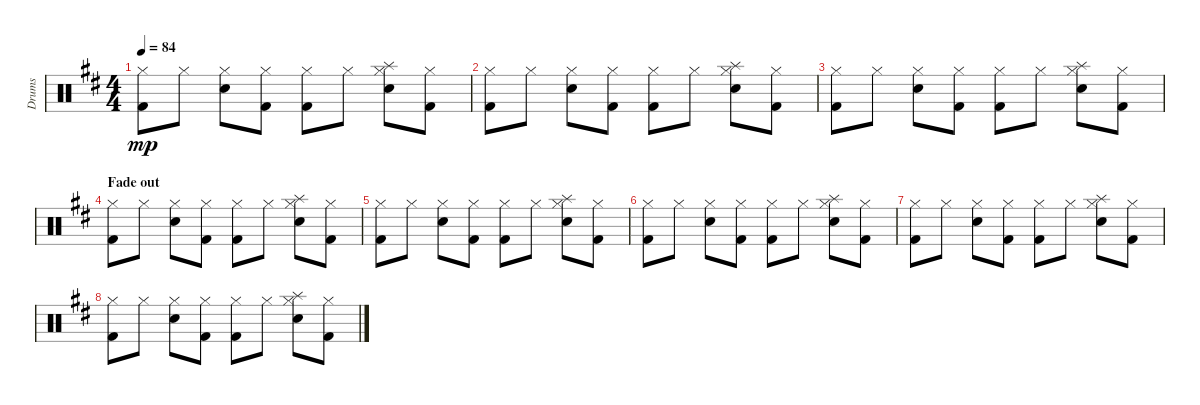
\track ("Drums" "Drums") {instrument percussion}
\staff {score}
\articulation defaults
\ts (4 4)
\tempo 84
\clef neutral
\ks d
("Hi-Hat (closed)" "Kick (hit) 2").8{dy mp} "Hi-Hat (closed)".8 ("Hi-Hat (closed)" "Snare (hit) 2").8 ("Hi-Hat (closed)" "Kick (hit) 2").8 ("Hi-Hat (closed)" "Kick (hit) 2").8 "Hi-Hat (closed)".8 ("Splash (hit)" "Hi-Hat (closed)" "Snare (hit) 2").8 ("Hi-Hat (closed)" "Kick (hit) 2").8 |
("Hi-Hat (closed)" "Kick (hit) 2").8 "Hi-Hat (closed)".8 ("Hi-Hat (closed)" "Snare (hit) 2").8 ("Hi-Hat (closed)" "Kick (hit) 2").8 ("Hi-Hat (closed)" "Kick (hit) 2").8 "Hi-Hat (closed)".8 ("Splash (hit)" "Hi-Hat (closed)" "Snare (hit) 2").8 ("Hi-Hat (closed)" "Kick (hit) 2").8 |
("Hi-Hat (closed)" "Kick (hit) 2").8 "Hi-Hat (closed)".8 ("Hi-Hat (closed)" "Snare (hit) 2").8 ("Hi-Hat (closed)" "Kick (hit) 2").8 ("Hi-Hat (closed)" "Kick (hit) 2").8 "Hi-Hat (closed)".8 ("Splash (hit)" "Hi-Hat (closed)" "Snare (hit) 2").8 ("Hi-Hat (closed)" "Kick (hit) 2").8 |
\section ("" "Fade out")
("Hi-Hat (closed)" "Kick (hit) 2").8{volume 0} "Hi-Hat (closed)".8 ("Hi-Hat (closed)" "Snare (hit) 2").8 ("Hi-Hat (closed)" "Kick (hit) 2").8 ("Hi-Hat (closed)" "Kick (hit) 2").8 "Hi-Hat (closed)".8 ("Splash (hit)" "Hi-Hat (closed)" "Snare (hit) 2").8 ("Hi-Hat (closed)" "Kick (hit) 2").8 |
("Hi-Hat (closed)" "Kick (hit) 2").8 "Hi-Hat (closed)".8 ("Hi-Hat (closed)" "Snare (hit) 2").8 ("Hi-Hat (closed)" "Kick (hit) 2").8 ("Hi-Hat (closed)" "Kick (hit) 2").8 "Hi-Hat (closed)".8 ("Splash (hit)" "Hi-Hat (closed)" "Snare (hit) 2").8 ("Hi-Hat (closed)" "Kick (hit) 2").8 |
("Hi-Hat (closed)" "Kick (hit) 2").8 "Hi-Hat (closed)".8 ("Hi-Hat (closed)" "Snare (hit) 2").8 ("Hi-Hat (closed)" "Kick (hit) 2").8 ("Hi-Hat (closed)" "Kick (hit) 2").8 "Hi-Hat (closed)".8 ("Splash (hit)" "Hi-Hat (closed)" "Snare (hit) 2").8 ("Hi-Hat (closed)" "Kick (hit) 2").8 |
("Hi-Hat (closed)" "Kick (hit) 2").8 "Hi-Hat (closed)".8 ("Hi-Hat (closed)" "Snare (hit) 2").8 ("Hi-Hat (closed)" "Kick (hit) 2").8 ("Hi-Hat (closed)" "Kick (hit) 2").8 "Hi-Hat (closed)".8 ("Splash (hit)" "Hi-Hat (closed)" "Snare (hit) 2").8 ("Hi-Hat (closed)" "Kick (hit) 2").8 |
("Hi-Hat (closed)" "Kick (hit) 2").8 "Hi-Hat (closed)".8 ("Hi-Hat (closed)" "Snare (hit) 2").8 ("Hi-Hat (closed)" "Kick (hit) 2").8 ("Hi-Hat (closed)" "Kick (hit) 2").8 "Hi-Hat (closed)".8 ("Splash (hit)" "Hi-Hat (closed)" "Snare (hit) 2").8 ("Hi-Hat (closed)" "Kick (hit) 2").8
